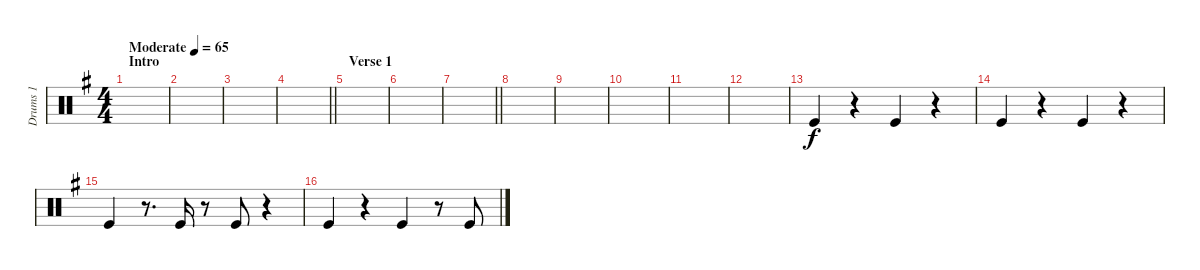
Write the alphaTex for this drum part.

\track ("Drums 1" "Drums 1") {instrument percussion}
\staff {score}
\articulation defaults
\ts (4 4)
\section ("" "Intro")
\tempo (65 "Moderate")
\clef neutral
\ks g
|
|
|
\barLineRight lightlight
|
\section ("" "Verse 1")
|
|
\barLineRight lightlight
|
|
|
|
|
|
"Kick (hit)".4 r.4 "Kick (hit)".4 r.4 |
"Kick (hit)".4 r.4 "Kick (hit)".4 r.4 |
"Kick (hit)".4 r.8{d} "Kick (hit)".16 r.8 "Kick (hit)".8 r.4 |
"Kick (hit)".4 r.4 "Kick (hit)".4 r.8 "Kick (hit)".8
